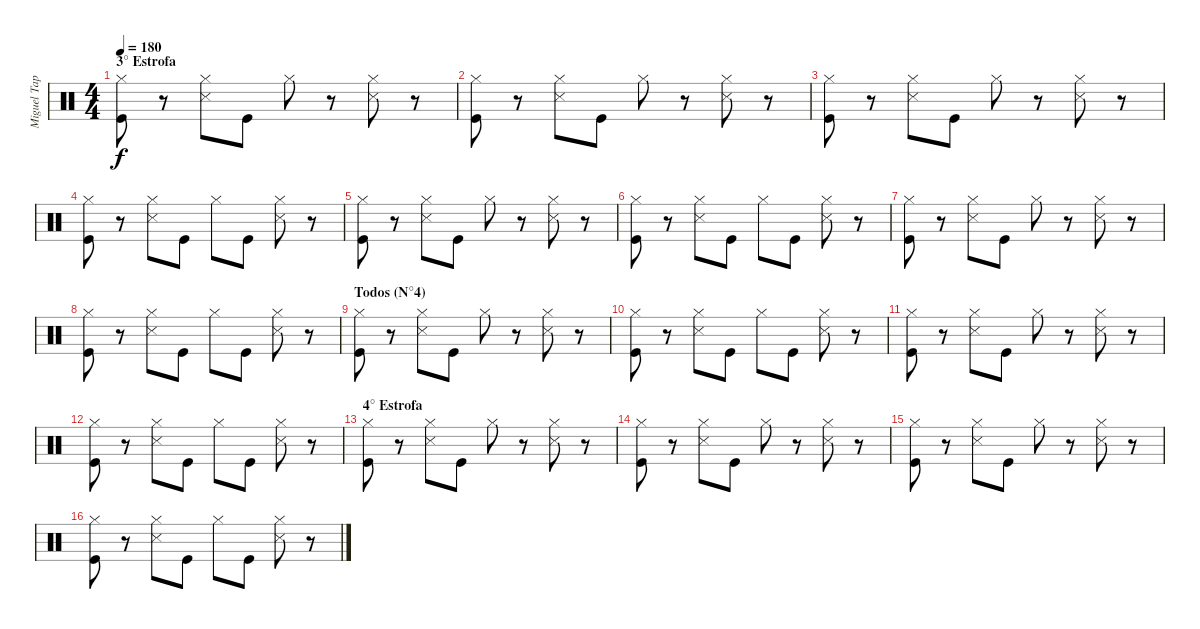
\track ("Miguel Tapia (Batería)" "Miguel Tap") {instrument percussion}
\staff {score}
\articulation defaults
\ts (4 4)
\section ("" "3° Estrofa ")
\tempo 180
\clef neutral
\ks c
("Hi-Hat (closed)" "Kick (hit)").8{dy f} r.8 ("Hi-Hat (closed)" "Snare (side stick) 3").8 "Kick (hit)".8 "Hi-Hat (closed)".8 r.8 ("Hi-Hat (closed)" "Snare (side stick) 3").8 r.8 |
("Hi-Hat (closed)" "Kick (hit)").8 r.8 ("Hi-Hat (closed)" "Snare (side stick) 3").8 "Kick (hit)".8 "Hi-Hat (closed)".8 r.8 ("Hi-Hat (closed)" "Snare (side stick) 3").8 r.8 |
("Hi-Hat (closed)" "Kick (hit)").8 r.8 ("Hi-Hat (closed)" "Snare (side stick) 3").8 "Kick (hit)".8 "Hi-Hat (closed)".8 r.8 ("Hi-Hat (closed)" "Snare (side stick) 3").8 r.8 |
("Hi-Hat (closed)" "Kick (hit)").8 r.8 ("Hi-Hat (closed)" "Snare (side stick) 3").8 "Kick (hit)".8 "Hi-Hat (closed)".8 "Kick (hit)".8 ("Hi-Hat (closed)" "Snare (side stick) 3").8 r.8 |
("Hi-Hat (closed)" "Kick (hit)").8 r.8 ("Hi-Hat (closed)" "Snare (side stick) 3").8 "Kick (hit)".8 "Hi-Hat (closed)".8 r.8 ("Hi-Hat (closed)" "Snare (side stick) 3").8 r.8 |
("Hi-Hat (closed)" "Kick (hit)").8 r.8 ("Hi-Hat (closed)" "Snare (side stick) 3").8 "Kick (hit)".8 "Hi-Hat (closed)".8 "Kick (hit)".8 ("Hi-Hat (closed)" "Snare (side stick) 3").8 r.8 |
("Hi-Hat (closed)" "Kick (hit)").8 r.8 ("Hi-Hat (closed)" "Snare (side stick) 3").8 "Kick (hit)".8 "Hi-Hat (closed)".8 r.8 ("Hi-Hat (closed)" "Snare (side stick) 3").8 r.8 |
("Hi-Hat (closed)" "Kick (hit)").8 r.8 ("Hi-Hat (closed)" "Snare (side stick) 3").8 "Kick (hit)".8 "Hi-Hat (closed)".8 "Kick (hit)".8 ("Hi-Hat (closed)" "Snare (side stick) 3").8 r.8 |
\section ("" "Todos (N°4)")
("Hi-Hat (closed)" "Kick (hit)").8 r.8 ("Hi-Hat (closed)" "Snare (side stick) 3").8 "Kick (hit)".8 "Hi-Hat (closed)".8 r.8 ("Hi-Hat (closed)" "Snare (side stick) 3").8 r.8 |
("Hi-Hat (closed)" "Kick (hit)").8 r.8 ("Hi-Hat (closed)" "Snare (side stick) 3").8 "Kick (hit)".8 "Hi-Hat (closed)".8 "Kick (hit)".8 ("Hi-Hat (closed)" "Snare (side stick) 3").8 r.8 |
("Hi-Hat (closed)" "Kick (hit)").8 r.8 ("Hi-Hat (closed)" "Snare (side stick) 3").8 "Kick (hit)".8 "Hi-Hat (closed)".8 r.8 ("Hi-Hat (closed)" "Snare (side stick) 3").8 r.8 |
("Hi-Hat (closed)" "Kick (hit)").8 r.8 ("Hi-Hat (closed)" "Snare (side stick) 3").8 "Kick (hit)".8 "Hi-Hat (closed)".8 "Kick (hit)".8 ("Hi-Hat (closed)" "Snare (side stick) 3").8 r.8 |
\section ("" "4° Estrofa")
("Hi-Hat (closed)" "Kick (hit)").8 r.8 ("Hi-Hat (closed)" "Snare (side stick) 3").8 "Kick (hit)".8 "Hi-Hat (closed)".8 r.8 ("Hi-Hat (closed)" "Snare (side stick) 3").8 r.8 |
("Hi-Hat (closed)" "Kick (hit)").8 r.8 ("Hi-Hat (closed)" "Snare (side stick) 3").8 "Kick (hit)".8 "Hi-Hat (closed)".8 r.8 ("Hi-Hat (closed)" "Snare (side stick) 3").8 r.8 |
("Hi-Hat (closed)" "Kick (hit)").8 r.8 ("Hi-Hat (closed)" "Snare (side stick) 3").8 "Kick (hit)".8 "Hi-Hat (closed)".8 r.8 ("Hi-Hat (closed)" "Snare (side stick) 3").8 r.8 |
("Hi-Hat (closed)" "Kick (hit)").8 r.8 ("Hi-Hat (closed)" "Snare (side stick) 3").8 "Kick (hit)".8 "Hi-Hat (closed)".8 "Kick (hit)".8 ("Hi-Hat (closed)" "Snare (side stick) 3").8 r.8
